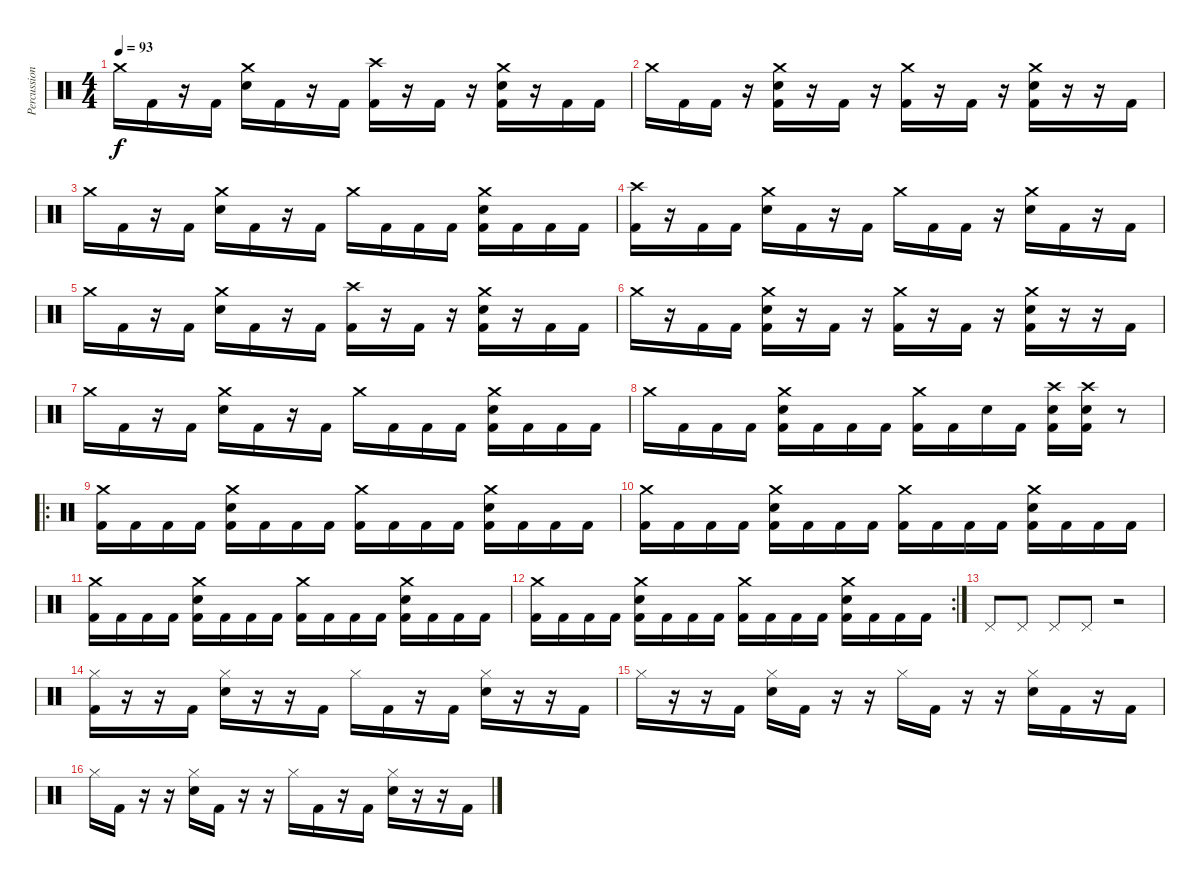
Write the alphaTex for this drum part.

\track ("Percussions" "Percussion") {instrument percussion}
\staff {score}
\articulation defaults
\ts (4 4)
\tempo 93
\clef neutral
\ks c "Crash medium (hit)".16{dy f} "Kick (hit) 2".16
r.16 "Kick (hit) 2".16 ("Crash medium (hit)" "Electric Snare (hit)").16 "Kick (hit) 2".16 r.16 "Kick (hit) 2".16 ("Crash high (hit)" "Kick (hit) 2").16 r.16 "Kick (hit) 2".16 r.16 ("Crash medium (hit)" "Electric Snare (hit)" "Kick (hit) 2").16 r.16 "Kick (hit) 2".16 "Kick (hit) 2".16 |
"Crash medium (hit)".16 "Kick (hit) 2".16 "Kick (hit) 2".16 r.16 ("Crash medium (hit)" "Electric Snare (hit)" "Kick (hit) 2").16 r.16 "Kick (hit) 2".16 r.16 ("Crash medium (hit)" "Kick (hit) 2").16 r.16 "Kick (hit) 2".16 r.16 ("Crash medium (hit)" "Electric Snare (hit)" "Kick (hit) 2").16 r.16 r.16 "Kick (hit) 2".16 |
"Crash medium (hit)".16 "Kick (hit) 2".16 r.16 "Kick (hit) 2".16 ("Crash medium (hit)" "Electric Snare (hit)").16 "Kick (hit) 2".16 r.16 "Kick (hit) 2".16 "Crash medium (hit)".16 "Kick (hit) 2".16 "Kick (hit) 2".16 "Kick (hit) 2".16 ("Crash medium (hit)" "Electric Snare (hit)" "Kick (hit) 2").16 "Kick (hit) 2".16 "Kick (hit) 2".16 "Kick (hit) 2".16 |
("Crash high (hit)" "Kick (hit) 2").16 r.16 "Kick (hit) 2".16 "Kick (hit) 2".16 ("Crash medium (hit)" "Electric Snare (hit)").16 "Kick (hit) 2".16 r.16 "Kick (hit) 2".16 "Crash medium (hit)".16 "Kick (hit) 2".16 "Kick (hit) 2".16 r.16 ("Crash medium (hit)" "Electric Snare (hit)").16 "Kick (hit) 2".16 r.16 "Kick (hit) 2".16 |
"Crash medium (hit)".16 "Kick (hit) 2".16 r.16 "Kick (hit) 2".16 ("Crash medium (hit)" "Electric Snare (hit)").16 "Kick (hit) 2".16 r.16 "Kick (hit) 2".16 ("Crash high (hit)" "Kick (hit) 2").16 r.16 "Kick (hit) 2".16 r.16 ("Crash medium (hit)" "Electric Snare (hit)" "Kick (hit) 2").16 r.16 "Kick (hit) 2".16 "Kick (hit) 2".16 |
"Crash medium (hit)".16 r.16 "Kick (hit) 2".16 "Kick (hit) 2".16 ("Crash medium (hit)" "Electric Snare (hit)" "Kick (hit) 2").16 r.16 "Kick (hit) 2".16 r.16 ("Crash medium (hit)" "Kick (hit) 2").16 r.16 "Kick (hit) 2".16 r.16 ("Crash medium (hit)" "Electric Snare (hit)" "Kick (hit) 2").16 r.16 r.16 "Kick (hit) 2".16 |
"Crash medium (hit)".16 "Kick (hit) 2".16 r.16 "Kick (hit) 2".16 ("Crash medium (hit)" "Electric Snare (hit)").16 "Kick (hit) 2".16 r.16 "Kick (hit) 2".16 "Crash medium (hit)".16 "Kick (hit) 2".16 "Kick (hit) 2".16 "Kick (hit) 2".16 ("Crash medium (hit)" "Electric Snare (hit)" "Kick (hit) 2").16 "Kick (hit) 2".16 "Kick (hit) 2".16 "Kick (hit) 2".16 |
"Crash medium (hit)".16 "Kick (hit) 2".16 "Kick (hit) 2".16 "Kick (hit) 2".16 ("Crash medium (hit)" "Electric Snare (hit)" "Kick (hit) 2").16 "Kick (hit) 2".16 "Kick (hit) 2".16 "Kick (hit) 2".16 ("Crash medium (hit)" "Kick (hit) 2").16 "Kick (hit) 2".16 "Electric Snare (hit)".16 "Kick (hit) 2".16 ("Crash high (hit)" "Electric Snare (hit)" "Kick (hit) 2").16 ("Crash high (hit)" "Electric Snare (hit)" "Kick (hit) 2").16 r.8 |
\ro
("Crash medium (hit)" "Kick (hit) 2").16 "Kick (hit) 2".16 "Kick (hit) 2".16 "Kick (hit) 2".16 ("Crash medium (hit)" "Electric Snare (hit)" "Kick (hit) 2").16 "Kick (hit) 2".16 "Kick (hit) 2".16 "Kick (hit) 2".16 ("Crash medium (hit)" "Kick (hit) 2").16 "Kick (hit) 2".16 "Kick (hit) 2".16 "Kick (hit) 2".16 ("Crash medium (hit)" "Electric Snare (hit)" "Kick (hit) 2").16 "Kick (hit) 2".16 "Kick (hit) 2".16 "Kick (hit) 2".16 |
("Crash medium (hit)" "Kick (hit) 2").16 "Kick (hit) 2".16 "Kick (hit) 2".16 "Kick (hit) 2".16 ("Crash medium (hit)" "Electric Snare (hit)" "Kick (hit) 2").16 "Kick (hit) 2".16 "Kick (hit) 2".16 "Kick (hit) 2".16 ("Crash medium (hit)" "Kick (hit) 2").16 "Kick (hit) 2".16 "Kick (hit) 2".16 "Kick (hit) 2".16 ("Crash medium (hit)" "Electric Snare (hit)" "Kick (hit) 2").16 "Kick (hit) 2".16 "Kick (hit) 2".16 "Kick (hit) 2".16 |
("Crash medium (hit)" "Kick (hit) 2").16 "Kick (hit) 2".16 "Kick (hit) 2".16 "Kick (hit) 2".16 ("Crash medium (hit)" "Electric Snare (hit)" "Kick (hit) 2").16 "Kick (hit) 2".16 "Kick (hit) 2".16 "Kick (hit) 2".16 ("Crash medium (hit)" "Kick (hit) 2").16 "Kick (hit) 2".16 "Kick (hit) 2".16 "Kick (hit) 2".16 ("Crash medium (hit)" "Electric Snare (hit)" "Kick (hit) 2").16 "Kick (hit) 2".16 "Kick (hit) 2".16 "Kick (hit) 2".16 |
\rc 2
("Crash medium (hit)" "Kick (hit) 2").16 "Kick (hit) 2".16 "Kick (hit) 2".16 "Kick (hit) 2".16 ("Crash medium (hit)" "Electric Snare (hit)" "Kick (hit) 2").16 "Kick (hit) 2".16 "Kick (hit) 2".16 "Kick (hit) 2".16 ("Crash medium (hit)" "Kick (hit) 2").16 "Kick (hit) 2".16 "Kick (hit) 2".16 "Kick (hit) 2".16 ("Crash medium (hit)" "Electric Snare (hit)" "Kick (hit) 2").16 "Kick (hit) 2".16 "Kick (hit) 2".16 "Kick (hit) 2".16 |
"Pedal Hi-Hat (hit)".8 "Pedal Hi-Hat (hit)".8 "Pedal Hi-Hat (hit)".8 "Pedal Hi-Hat (hit)".8 r.2 |
("Hi-Hat (closed)" "Kick (hit) 2").16 r.16 r.16 "Kick (hit) 2".16 ("Hi-Hat (closed)" "Electric Snare (hit)").16 r.16 r.16 "Kick (hit) 2".16 "Hi-Hat (closed)".16 "Kick (hit) 2".16 r.16 "Kick (hit) 2".16 ("Hi-Hat (closed)" "Electric Snare (hit)").16 r.16 r.16 "Kick (hit) 2".16 |
"Hi-Hat (closed)".16 r.16 r.16 "Kick (hit) 2".16 ("Hi-Hat (closed)" "Electric Snare (hit)").16 "Kick (hit) 2".16 r.16 r.16 "Hi-Hat (closed)".16 "Kick (hit) 2".16 r.16 r.16 ("Hi-Hat (closed)" "Electric Snare (hit)").16 "Kick (hit) 2".16 r.16 "Kick (hit) 2".16 |
"Hi-Hat (closed)".16 "Kick (hit) 2".16 r.16 r.16 ("Hi-Hat (closed)" "Electric Snare (hit)").16 "Kick (hit) 2".16 r.16 r.16 "Hi-Hat (closed)".16 "Kick (hit) 2".16 r.16 "Kick (hit) 2".16 ("Hi-Hat (closed)" "Electric Snare (hit)").16 r.16 r.16 "Kick (hit) 2".16
